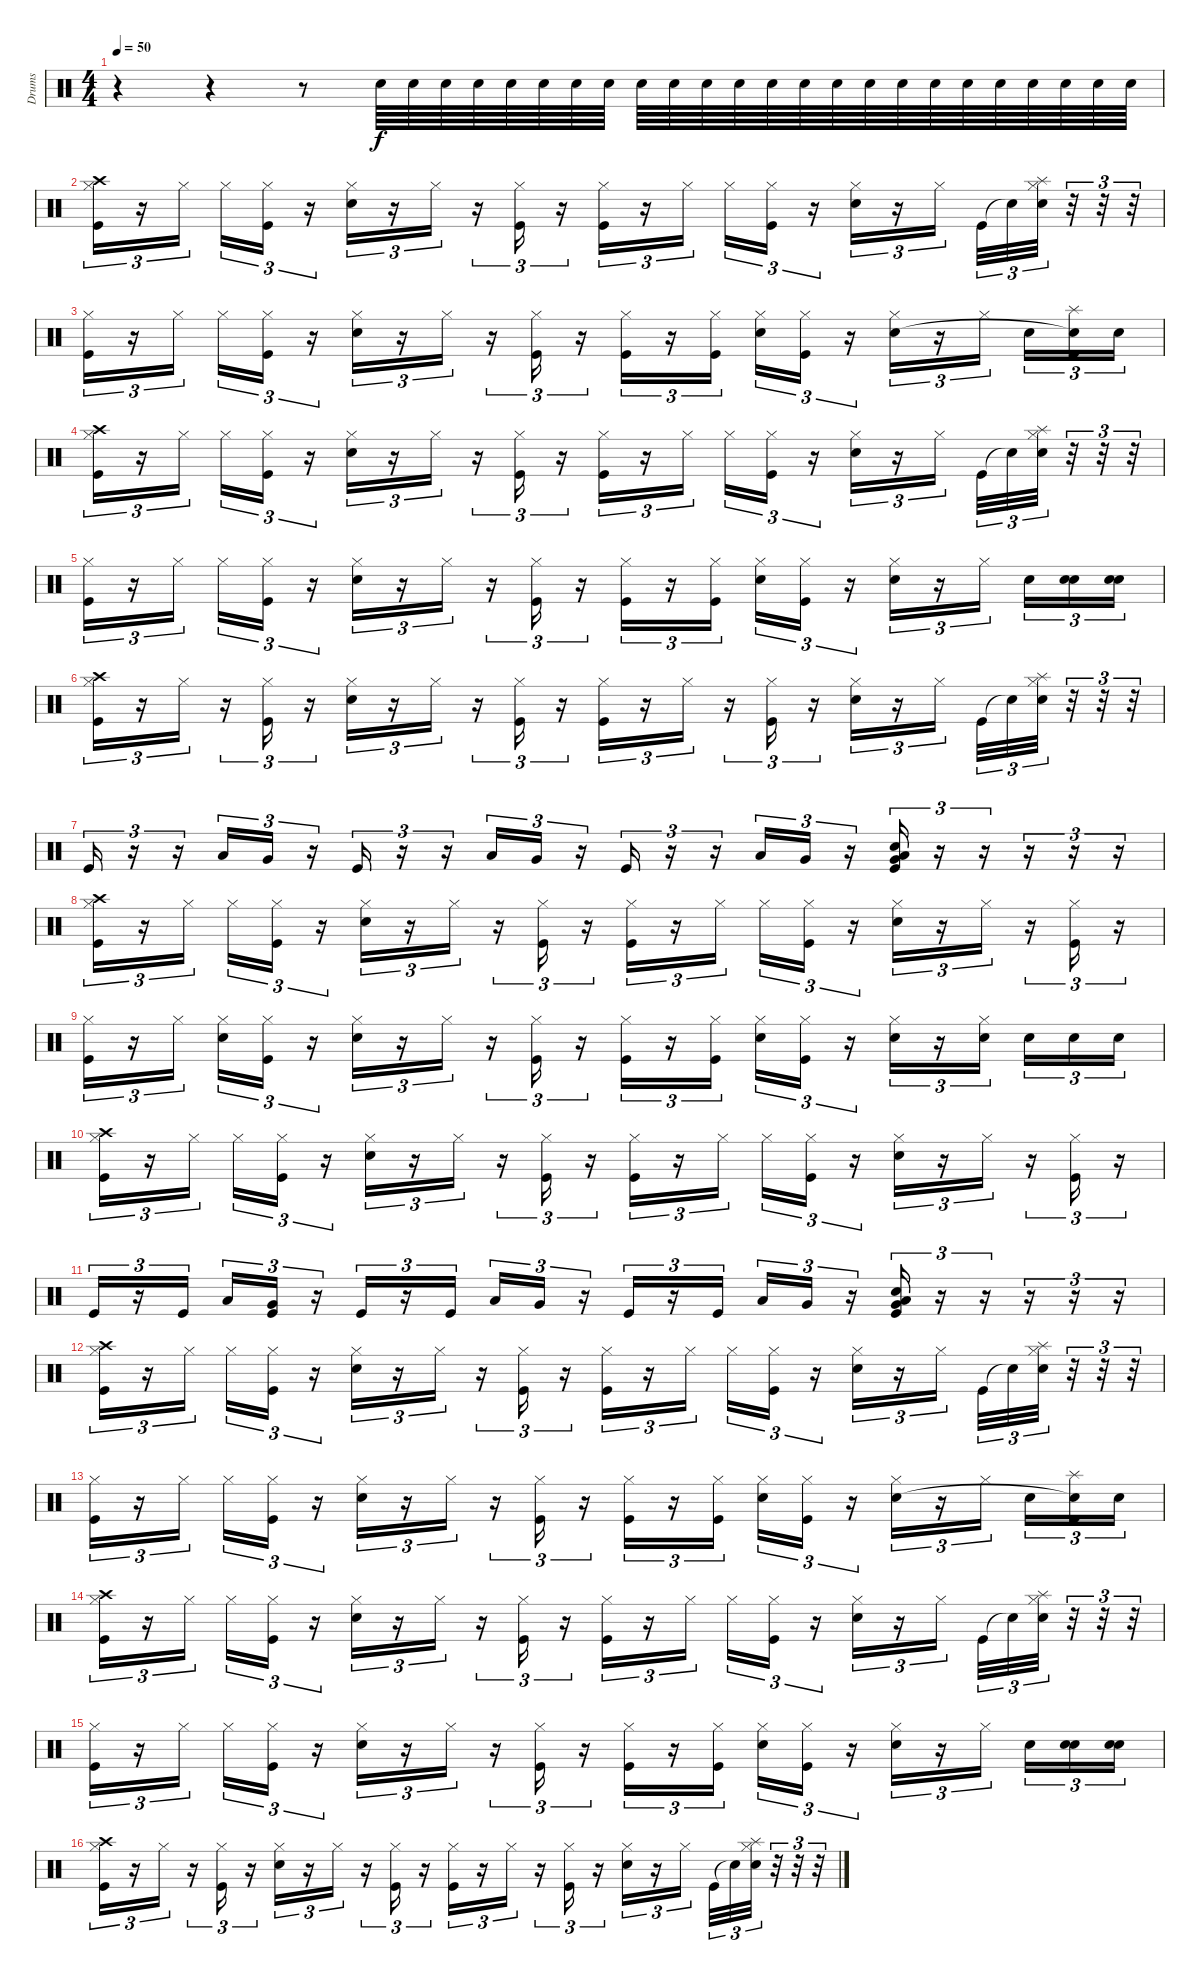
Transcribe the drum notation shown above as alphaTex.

\track ("Drums" "Drums") {instrument percussion}
\staff {score}
\articulation defaults
\ts (4 4)
\tempo 50
\clef neutral
\ks c
r.4{dy f} r.4 r.8 "Snare (hit) 2".64{volume 0} "Snare (hit) 2".64{volume 1} "Snare (hit) 2".64{volume 1} "Snare (hit) 2".64{volume 2} "Snare (hit) 2".64{volume 3} "Snare (hit) 2".64{volume 4} "Snare (hit) 2".64{volume 5} "Snare (hit) 2".64{volume 6} "Snare (hit) 2".64{volume 6} "Snare (hit) 2".64{volume 7} "Snare (hit) 2".64{volume 8} "Snare (hit) 2".64{volume 8} "Snare (hit) 2".64{volume 9} "Snare (hit) 2".64{volume 9} "Snare (hit) 2".64{volume 10} "Snare (hit) 2".64{volume 10} "Snare (hit) 2".64{volume 11} "Snare (hit) 2".64{volume 11} "Snare (hit) 2".64{volume 11} "Snare (hit) 2".64{volume 11} "Snare (hit) 2".64{volume 12} "Snare (hit) 2".64{volume 13} "Snare (hit) 2".64 "Snare (hit) 2".64 |
("Hi-Hat (closed)" "Crash high (hit)" "Kick (hit)").16{tu (3 2)} r.16{tu (3 2)} "Hi-Hat (closed)".16{tu (3 2)} "Hi-Hat (closed)".16{tu (3 2)} ("Hi-Hat (closed)" "Kick (hit)").16{tu (3 2)} r.16{tu (3 2)} ("Hi-Hat (closed)" "Electric Snare (hit)").16{tu (3 2)} r.16{tu (3 2)} "Hi-Hat (closed)".16{tu (3 2)} r.16{tu (3 2)} ("Hi-Hat (closed)" "Kick (hit)").16{tu (3 2)} r.16{tu (3 2)} ("Hi-Hat (closed)" "Kick (hit)").16{tu (3 2)} r.16{tu (3 2)} "Hi-Hat (closed)".16{tu (3 2)} "Hi-Hat (closed)".16{tu (3 2)} ("Hi-Hat (closed)" "Kick (hit)").16{tu (3 2)} r.16{tu (3 2)} ("Hi-Hat (closed)" "Electric Snare (hit)").16{tu (3 2)} r.16{tu (3 2)} "Hi-Hat (closed)".16{tu (3 2)} "Kick (hit)".32{tu (3 2)} "Snare (hit)"{t}.32{tu (3 2)} ("Hi-Hat (closed)" "Splash (hit)" "Electric Snare (hit)").32{tu (3 2)} r.32{tu (3 2)} r.32{tu (3 2)} r.32{tu (3 2)} |
("Hi-Hat (closed)" "Kick (hit)").16{tu (3 2)} r.16{tu (3 2)} "Hi-Hat (closed)".16{tu (3 2)} "Hi-Hat (closed)".16{tu (3 2)} ("Hi-Hat (closed)" "Kick (hit)").16{tu (3 2)} r.16{tu (3 2)} ("Hi-Hat (closed)" "Electric Snare (hit)").16{tu (3 2)} r.16{tu (3 2)} "Hi-Hat (closed)".16{tu (3 2)} r.16{tu (3 2)} ("Hi-Hat (closed)" "Kick (hit)").16{tu (3 2)} r.16{tu (3 2)} ("Hi-Hat (closed)" "Kick (hit)").16{tu (3 2)} r.16{tu (3 2)} ("Hi-Hat (closed)" "Kick (hit)").16{tu (3 2)} ("Hi-Hat (closed)" "Snare (hit) 2").16{tu (3 2)} ("Hi-Hat (closed)" "Kick (hit)").16{tu (3 2)} r.16{tu (3 2)} ("Hi-Hat (closed)" "Electric Snare (hit)").16{tu (3 2)} r.16{tu (3 2)} "Hi-Hat (closed)".16{tu (3 2)} "Snare (hit) 2".16{tu (3 2)} ("Splash (hit)" "Snare (hit)"{t} "Kick (hit)").16{tu (3 2)} "Snare (hit) 2".16{tu (3 2)} |
("Hi-Hat (closed)" "Crash high (hit)" "Kick (hit)").16{tu (3 2)} r.16{tu (3 2)} "Hi-Hat (closed)".16{tu (3 2)} "Hi-Hat (closed)".16{tu (3 2)} ("Hi-Hat (closed)" "Kick (hit)").16{tu (3 2)} r.16{tu (3 2)} ("Hi-Hat (closed)" "Electric Snare (hit)").16{tu (3 2)} r.16{tu (3 2)} "Hi-Hat (closed)".16{tu (3 2)} r.16{tu (3 2)} ("Hi-Hat (closed)" "Kick (hit)").16{tu (3 2)} r.16{tu (3 2)} ("Hi-Hat (closed)" "Kick (hit)").16{tu (3 2)} r.16{tu (3 2)} "Hi-Hat (closed)".16{tu (3 2)} "Hi-Hat (closed)".16{tu (3 2)} ("Hi-Hat (closed)" "Kick (hit)").16{tu (3 2)} r.16{tu (3 2)} ("Hi-Hat (closed)" "Electric Snare (hit)").16{tu (3 2)} r.16{tu (3 2)} "Hi-Hat (closed)".16{tu (3 2)} "Kick (hit)".32{tu (3 2)} "Snare (hit)"{t}.32{tu (3 2)} ("Hi-Hat (closed)" "Splash (hit)" "Electric Snare (hit)").32{tu (3 2)} r.32{tu (3 2)} r.32{tu (3 2)} r.32{tu (3 2)} |
("Hi-Hat (closed)" "Kick (hit)").16{tu (3 2)} r.16{tu (3 2)} "Hi-Hat (closed)".16{tu (3 2)} "Hi-Hat (closed)".16{tu (3 2)} ("Hi-Hat (closed)" "Kick (hit)").16{tu (3 2)} r.16{tu (3 2)} ("Hi-Hat (closed)" "Electric Snare (hit)").16{tu (3 2)} r.16{tu (3 2)} "Hi-Hat (closed)".16{tu (3 2)} r.16{tu (3 2)} ("Hi-Hat (closed)" "Kick (hit)").16{tu (3 2)} r.16{tu (3 2)} ("Hi-Hat (closed)" "Kick (hit)").16{tu (3 2)} r.16{tu (3 2)} ("Hi-Hat (closed)" "Kick (hit)").16{tu (3 2)} ("Hi-Hat (closed)" "Snare (hit) 2").16{tu (3 2)} ("Hi-Hat (closed)" "Kick (hit)").16{tu (3 2)} r.16{tu (3 2)} ("Hi-Hat (closed)" "Electric Snare (hit)").16{tu (3 2)} r.16{tu (3 2)} "Hi-Hat (closed)".16{tu (3 2)} "Snare (hit) 2".16{tu (3 2)} ("Electric Snare (hit)" "Electric Snare (hit)").16{tu (3 2)} ("Electric Snare (hit)" "Electric Snare (hit)").16{tu (3 2)} |
("Hi-Hat (closed)" "Crash high (hit)" "Kick (hit)").16{tu (3 2)} r.16{tu (3 2)} "Hi-Hat (closed)".16{tu (3 2)} r.16{tu (3 2)} ("Hi-Hat (closed)" "Kick (hit)").16{tu (3 2)} r.16{tu (3 2)} ("Hi-Hat (closed)" "Electric Snare (hit)").16{tu (3 2)} r.16{tu (3 2)} "Hi-Hat (closed)".16{tu (3 2)} r.16{tu (3 2)} ("Hi-Hat (closed)" "Kick (hit)").16{tu (3 2)} r.16{tu (3 2)} ("Hi-Hat (closed)" "Kick (hit)").16{tu (3 2)} r.16{tu (3 2)} "Hi-Hat (closed)".16{tu (3 2)} r.16{tu (3 2)} ("Hi-Hat (closed)" "Kick (hit)").16{tu (3 2)} r.16{tu (3 2)} ("Hi-Hat (closed)" "Electric Snare (hit)").16{tu (3 2)} r.16{tu (3 2)} "Hi-Hat (closed)".16{tu (3 2)} "Kick (hit)".32{tu (3 2)} "Snare (hit)"{t}.32{tu (3 2)} ("Hi-Hat (closed)" "Splash (hit)" "Electric Snare (hit)").32{tu (3 2)} r.32{tu (3 2)} r.32{tu (3 2)} r.32{tu (3 2)} |
"Kick (hit)".16{tu (3 2)} r.16{tu (3 2)} r.16{tu (3 2)} "Low Tom (hit)".16{tu (3 2)} "Very Low Tom (hit)".16{tu (3 2)} r.16{tu (3 2)} "Kick (hit)".16{tu (3 2)} r.16{tu (3 2)} r.16{tu (3 2)} "Low Tom (hit)".16{tu (3 2)} "Very Low Tom (hit)".16{tu (3 2)} r.16{tu (3 2)} "Kick (hit)".16{tu (3 2)} r.16{tu (3 2)} r.16{tu (3 2)} "Low Tom (hit)".16{tu (3 2)} "Very Low Tom (hit)".16{tu (3 2)} r.16{tu (3 2)} ("Electric Snare (hit)" "Low Tom (hit)" "Very Low Tom (hit)" "Kick (hit)").16{tu (3 2)} r.16{tu (3 2)} r.16{tu (3 2)} r.16{tu (3 2)} r.16{tu (3 2)} r.16{tu (3 2)} |
("Hi-Hat (closed)" "Crash high (hit)" "Kick (hit)").16{tu (3 2)} r.16{tu (3 2)} "Hi-Hat (closed)".16{tu (3 2)} "Hi-Hat (closed)".16{tu (3 2)} ("Hi-Hat (closed)" "Kick (hit)").16{tu (3 2)} r.16{tu (3 2)} ("Hi-Hat (closed)" "Electric Snare (hit)").16{tu (3 2)} r.16{tu (3 2)} "Hi-Hat (closed)".16{tu (3 2)} r.16{tu (3 2)} ("Hi-Hat (closed)" "Kick (hit)").16{tu (3 2)} r.16{tu (3 2)} ("Hi-Hat (closed)" "Kick (hit)").16{tu (3 2)} r.16{tu (3 2)} "Hi-Hat (closed)".16{tu (3 2)} "Hi-Hat (closed)".16{tu (3 2)} ("Hi-Hat (closed)" "Kick (hit)").16{tu (3 2)} r.16{tu (3 2)} ("Hi-Hat (closed)" "Electric Snare (hit)").16{tu (3 2)} r.16{tu (3 2)} "Hi-Hat (closed)".16{tu (3 2)} r.16{tu (3 2)} ("Hi-Hat (closed)" "Kick (hit)").16{tu (3 2)} r.16{tu (3 2)} |
("Hi-Hat (closed)" "Kick (hit)").16{tu (3 2)} r.16{tu (3 2)} "Hi-Hat (closed)".16{tu (3 2)} ("Hi-Hat (closed)" "Snare (hit) 2").16{tu (3 2)} ("Hi-Hat (closed)" "Kick (hit)").16{tu (3 2)} r.16{tu (3 2)} ("Hi-Hat (closed)" "Electric Snare (hit)").16{tu (3 2)} r.16{tu (3 2)} "Hi-Hat (closed)".16{tu (3 2)} r.16{tu (3 2)} ("Hi-Hat (closed)" "Kick (hit)").16{tu (3 2)} r.16{tu (3 2)} ("Hi-Hat (closed)" "Kick (hit)").16{tu (3 2)} r.16{tu (3 2)} ("Hi-Hat (closed)" "Kick (hit)").16{tu (3 2)} ("Hi-Hat (closed)" "Snare (hit) 2").16{tu (3 2)} ("Hi-Hat (closed)" "Kick (hit)").16{tu (3 2)} r.16{tu (3 2)} ("Hi-Hat (closed)" "Electric Snare (hit)").16{tu (3 2)} r.16{tu (3 2)} ("Hi-Hat (closed)" "Snare (hit) 2").16{tu (3 2)} "Snare (hit) 2".16{tu (3 2)} "Snare (hit) 2".16{tu (3 2)} "Snare (hit) 2".16{tu (3 2)} |
("Hi-Hat (closed)" "Crash high (hit)" "Kick (hit)").16{tu (3 2)} r.16{tu (3 2)} "Hi-Hat (closed)".16{tu (3 2)} "Hi-Hat (closed)".16{tu (3 2)} ("Hi-Hat (closed)" "Kick (hit)").16{tu (3 2)} r.16{tu (3 2)} ("Hi-Hat (closed)" "Electric Snare (hit)").16{tu (3 2)} r.16{tu (3 2)} "Hi-Hat (closed)".16{tu (3 2)} r.16{tu (3 2)} ("Hi-Hat (closed)" "Kick (hit)").16{tu (3 2)} r.16{tu (3 2)} ("Hi-Hat (closed)" "Kick (hit)").16{tu (3 2)} r.16{tu (3 2)} "Hi-Hat (closed)".16{tu (3 2)} "Hi-Hat (closed)".16{tu (3 2)} ("Hi-Hat (closed)" "Kick (hit)").16{tu (3 2)} r.16{tu (3 2)} ("Hi-Hat (closed)" "Electric Snare (hit)").16{tu (3 2)} r.16{tu (3 2)} "Hi-Hat (closed)".16{tu (3 2)} r.16{tu (3 2)} ("Hi-Hat (closed)" "Kick (hit)").16{tu (3 2)} r.16{tu (3 2)} |
"Kick (hit)".16{tu (3 2)} r.16{tu (3 2)} "Kick (hit)".16{tu (3 2)} "Low Tom (hit)".16{tu (3 2)} ("Very Low Tom (hit)" "Kick (hit)").16{tu (3 2)} r.16{tu (3 2)} "Kick (hit)".16{tu (3 2)} r.16{tu (3 2)} "Kick (hit)".16{tu (3 2)} "Low Tom (hit)".16{tu (3 2)} "Very Low Tom (hit)".16{tu (3 2)} r.16{tu (3 2)} "Kick (hit)".16{tu (3 2)} r.16{tu (3 2)} "Kick (hit)".16{tu (3 2)} "Low Tom (hit)".16{tu (3 2)} "Very Low Tom (hit)".16{tu (3 2)} r.16{tu (3 2)} ("Electric Snare (hit)" "Low Tom (hit)" "Very Low Tom (hit)" "Kick (hit)").16{tu (3 2)} r.16{tu (3 2)} r.16{tu (3 2)} r.16{tu (3 2)} r.16{tu (3 2)} r.16{tu (3 2)} |
("Hi-Hat (closed)" "Crash high (hit)" "Kick (hit)").16{tu (3 2)} r.16{tu (3 2)} "Hi-Hat (closed)".16{tu (3 2)} "Hi-Hat (closed)".16{tu (3 2)} ("Hi-Hat (closed)" "Kick (hit)").16{tu (3 2)} r.16{tu (3 2)} ("Hi-Hat (closed)" "Electric Snare (hit)").16{tu (3 2)} r.16{tu (3 2)} "Hi-Hat (closed)".16{tu (3 2)} r.16{tu (3 2)} ("Hi-Hat (closed)" "Kick (hit)").16{tu (3 2)} r.16{tu (3 2)} ("Hi-Hat (closed)" "Kick (hit)").16{tu (3 2)} r.16{tu (3 2)} "Hi-Hat (closed)".16{tu (3 2)} "Hi-Hat (closed)".16{tu (3 2)} ("Hi-Hat (closed)" "Kick (hit)").16{tu (3 2)} r.16{tu (3 2)} ("Hi-Hat (closed)" "Electric Snare (hit)").16{tu (3 2)} r.16{tu (3 2)} "Hi-Hat (closed)".16{tu (3 2)} "Kick (hit)".32{tu (3 2)} "Snare (hit)"{t}.32{tu (3 2)} ("Hi-Hat (closed)" "Splash (hit)" "Electric Snare (hit)").32{tu (3 2)} r.32{tu (3 2)} r.32{tu (3 2)} r.32{tu (3 2)} |
("Hi-Hat (closed)" "Kick (hit)").16{tu (3 2)} r.16{tu (3 2)} "Hi-Hat (closed)".16{tu (3 2)} "Hi-Hat (closed)".16{tu (3 2)} ("Hi-Hat (closed)" "Kick (hit)").16{tu (3 2)} r.16{tu (3 2)} ("Hi-Hat (closed)" "Electric Snare (hit)").16{tu (3 2)} r.16{tu (3 2)} "Hi-Hat (closed)".16{tu (3 2)} r.16{tu (3 2)} ("Hi-Hat (closed)" "Kick (hit)").16{tu (3 2)} r.16{tu (3 2)} ("Hi-Hat (closed)" "Kick (hit)").16{tu (3 2)} r.16{tu (3 2)} ("Hi-Hat (closed)" "Kick (hit)").16{tu (3 2)} ("Hi-Hat (closed)" "Snare (hit) 2").16{tu (3 2)} ("Hi-Hat (closed)" "Kick (hit)").16{tu (3 2)} r.16{tu (3 2)} ("Hi-Hat (closed)" "Electric Snare (hit)").16{tu (3 2)} r.16{tu (3 2)} "Hi-Hat (closed)".16{tu (3 2)} "Snare (hit) 2".16{tu (3 2)} ("Splash (hit)" "Snare (hit)"{t} "Kick (hit)").16{tu (3 2)} "Snare (hit) 2".16{tu (3 2)} |
("Hi-Hat (closed)" "Crash high (hit)" "Kick (hit)").16{tu (3 2)} r.16{tu (3 2)} "Hi-Hat (closed)".16{tu (3 2)} "Hi-Hat (closed)".16{tu (3 2)} ("Hi-Hat (closed)" "Kick (hit)").16{tu (3 2)} r.16{tu (3 2)} ("Hi-Hat (closed)" "Electric Snare (hit)").16{tu (3 2)} r.16{tu (3 2)} "Hi-Hat (closed)".16{tu (3 2)} r.16{tu (3 2)} ("Hi-Hat (closed)" "Kick (hit)").16{tu (3 2)} r.16{tu (3 2)} ("Hi-Hat (closed)" "Kick (hit)").16{tu (3 2)} r.16{tu (3 2)} "Hi-Hat (closed)".16{tu (3 2)} "Hi-Hat (closed)".16{tu (3 2)} ("Hi-Hat (closed)" "Kick (hit)").16{tu (3 2)} r.16{tu (3 2)} ("Hi-Hat (closed)" "Electric Snare (hit)").16{tu (3 2)} r.16{tu (3 2)} "Hi-Hat (closed)".16{tu (3 2)} "Kick (hit)".32{tu (3 2)} "Snare (hit)"{t}.32{tu (3 2)} ("Hi-Hat (closed)" "Splash (hit)" "Electric Snare (hit)").32{tu (3 2)} r.32{tu (3 2)} r.32{tu (3 2)} r.32{tu (3 2)} |
("Hi-Hat (closed)" "Kick (hit)").16{tu (3 2)} r.16{tu (3 2)} "Hi-Hat (closed)".16{tu (3 2)} "Hi-Hat (closed)".16{tu (3 2)} ("Hi-Hat (closed)" "Kick (hit)").16{tu (3 2)} r.16{tu (3 2)} ("Hi-Hat (closed)" "Electric Snare (hit)").16{tu (3 2)} r.16{tu (3 2)} "Hi-Hat (closed)".16{tu (3 2)} r.16{tu (3 2)} ("Hi-Hat (closed)" "Kick (hit)").16{tu (3 2)} r.16{tu (3 2)} ("Hi-Hat (closed)" "Kick (hit)").16{tu (3 2)} r.16{tu (3 2)} ("Hi-Hat (closed)" "Kick (hit)").16{tu (3 2)} ("Hi-Hat (closed)" "Snare (hit) 2").16{tu (3 2)} ("Hi-Hat (closed)" "Kick (hit)").16{tu (3 2)} r.16{tu (3 2)} ("Hi-Hat (closed)" "Electric Snare (hit)").16{tu (3 2)} r.16{tu (3 2)} "Hi-Hat (closed)".16{tu (3 2)} "Snare (hit) 2".16{tu (3 2)} ("Electric Snare (hit)" "Electric Snare (hit)").16{tu (3 2)} ("Electric Snare (hit)" "Electric Snare (hit)").16{tu (3 2)} |
("Hi-Hat (closed)" "Crash high (hit)" "Kick (hit)").16{tu (3 2)} r.16{tu (3 2)} "Hi-Hat (closed)".16{tu (3 2)} r.16{tu (3 2)} ("Hi-Hat (closed)" "Kick (hit)").16{tu (3 2)} r.16{tu (3 2)} ("Hi-Hat (closed)" "Electric Snare (hit)").16{tu (3 2)} r.16{tu (3 2)} "Hi-Hat (closed)".16{tu (3 2)} r.16{tu (3 2)} ("Hi-Hat (closed)" "Kick (hit)").16{tu (3 2)} r.16{tu (3 2)} ("Hi-Hat (closed)" "Kick (hit)").16{tu (3 2)} r.16{tu (3 2)} "Hi-Hat (closed)".16{tu (3 2)} r.16{tu (3 2)} ("Hi-Hat (closed)" "Kick (hit)").16{tu (3 2)} r.16{tu (3 2)} ("Hi-Hat (closed)" "Electric Snare (hit)").16{tu (3 2)} r.16{tu (3 2)} "Hi-Hat (closed)".16{tu (3 2)} "Kick (hit)".32{tu (3 2)} "Snare (hit)"{t}.32{tu (3 2)} ("Hi-Hat (closed)" "Splash (hit)" "Electric Snare (hit)").32{tu (3 2)} r.32{tu (3 2)} r.32{tu (3 2)} r.32{tu (3 2)}
